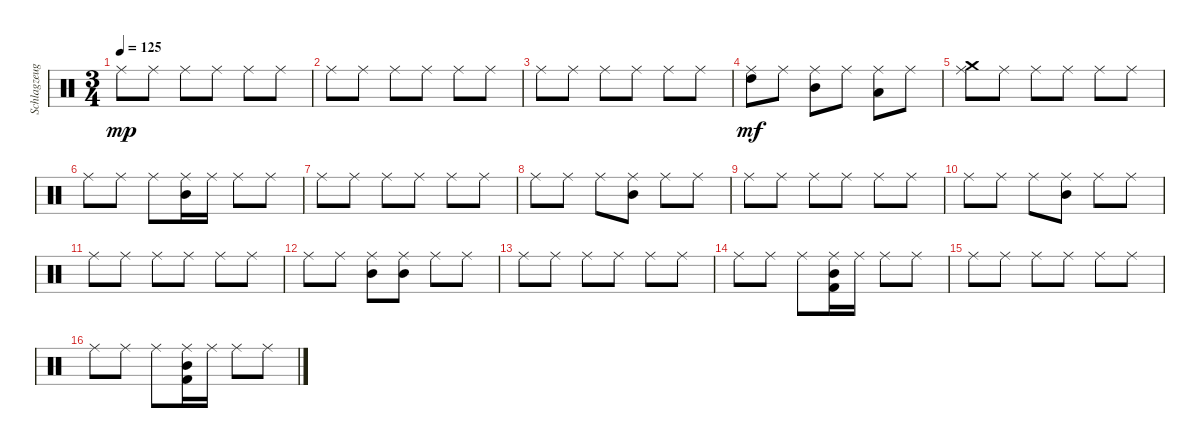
\track ("Schlagzeug" "Schlagzeug") {instrument percussion}
\staff {score}
\articulation defaults
\ts (3 4)
\tempo 125
\clef neutral
\ks c "Ride (middle)".8{dy mp} "Ride (middle)".8 "Ride (middle)".8 "Ride (middle)".8 "Ride (middle)".8 "Ride (middle)".8
|
"Ride (middle)".8 "Ride (middle)".8 "Ride (middle)".8 "Ride (middle)".8 "Ride (middle)".8 "Ride (middle)".8 |
"Ride (middle)".8 "Ride (middle)".8 "Ride (middle)".8 "Ride (middle)".8 "Ride (middle)".8 "Ride (middle)".8 |
("Ride (middle)" "High Tom (hit)").8{dy mf} "Ride (middle)".8 ("Ride (middle)" "Mid Tom (hit)").8 "Ride (middle)".8 ("Ride (middle)" "Low Tom (hit)").8 "Ride (middle)".8 |
("Ride (middle)" "Crash medium (hit)").8 "Ride (middle)".8 "Ride (middle)".8 "Ride (middle)".8 "Ride (middle)".8 "Ride (middle)".8 |
"Ride (middle)".8 "Ride (middle)".8 "Ride (middle)".8 ("Ride (middle)" "Mid Tom (hit)").16 "Ride (middle)".16 "Ride (middle)".8 "Ride (middle)".8 |
"Ride (middle)".8 "Ride (middle)".8 "Ride (middle)".8 "Ride (middle)".8 "Ride (middle)".8 "Ride (middle)".8 |
"Ride (middle)".8 "Ride (middle)".8 "Ride (middle)".8 ("Ride (middle)" "Mid Tom (hit)").8 "Ride (middle)".8 "Ride (middle)".8 |
"Ride (middle)".8 "Ride (middle)".8 "Ride (middle)".8 "Ride (middle)".8 "Ride (middle)".8 "Ride (middle)".8 |
"Ride (middle)".8 "Ride (middle)".8 "Ride (middle)".8 ("Ride (middle)" "Mid Tom (hit)").8 "Ride (middle)".8 "Ride (middle)".8 |
"Ride (middle)".8 "Ride (middle)".8 "Ride (middle)".8 "Ride (middle)".8 "Ride (middle)".8 "Ride (middle)".8 |
"Ride (middle)".8 "Ride (middle)".8 ("Ride (middle)" "Mid Tom (hit)").8 ("Ride (middle)" "Mid Tom (hit)").8 "Ride (middle)".8 "Ride (middle)".8 |
"Ride (middle)".8 "Ride (middle)".8 "Ride (middle)".8 "Ride (middle)".8 "Ride (middle)".8 "Ride (middle)".8 |
"Ride (middle)".8 "Ride (middle)".8 "Ride (middle)".8 ("Ride (middle)" "Mid Tom (hit)" "Kick (hit) 2").16 "Ride (middle)".16 "Ride (middle)".8 "Ride (middle)".8 |
"Ride (middle)".8 "Ride (middle)".8 "Ride (middle)".8 "Ride (middle)".8 "Ride (middle)".8 "Ride (middle)".8 |
"Ride (middle)".8 "Ride (middle)".8 "Ride (middle)".8 ("Ride (middle)" "Mid Tom (hit)" "Kick (hit) 2").16 "Ride (middle)".16 "Ride (middle)".8 "Ride (middle)".8
